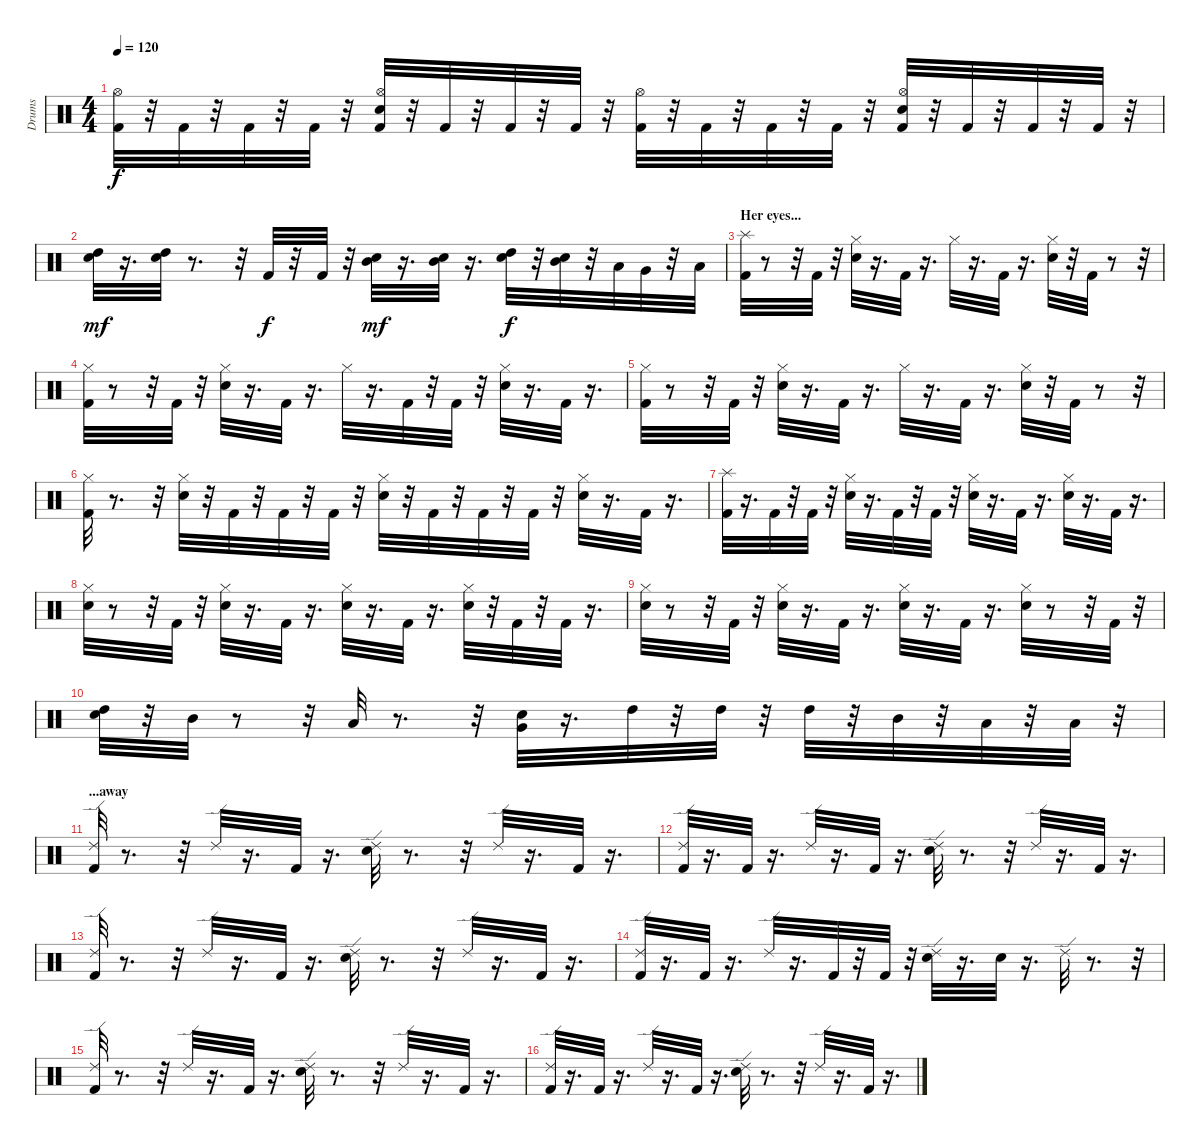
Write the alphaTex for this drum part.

\track ("Drums" "Drums") {instrument percussion}
\staff {score}
\articulation defaults
\ts (4 4)
\tempo 120
\clef neutral
\ks c
("Kick (hit) 2" "Hi-Hat (open)").32{dy f} r.32 "Kick (hit) 2".32 r.32 "Kick (hit) 2".32 r.32 "Kick (hit) 2".32 r.32 ("Kick (hit) 2" "Snare (hit) 2" "Hi-Hat (open)").32 r.32 "Kick (hit) 2".32 r.32 "Kick (hit) 2".32 r.32 "Kick (hit) 2".32 r.32 ("Kick (hit) 2" "Hi-Hat (open)").32 r.32 "Kick (hit) 2".32 r.32 "Kick (hit) 2".32 r.32 "Kick (hit) 2".32 r.32 ("Kick (hit) 2" "Snare (hit) 2" "Hi-Hat (open)").32 r.32 "Kick (hit) 2".32 r.32 "Kick (hit) 2".32 r.32 "Kick (hit) 2".32 r.32 |
("Snare (hit) 2" "High Tom (hit)").32{dy mf} r.16{d} ("Snare (hit) 2" "High Tom (hit)").32 r.8{d} r.32 "Kick (hit) 2".32{dy f} r.32 "Kick (hit) 2".32 r.32 ("Snare (hit) 2" "Mid Tom (hit)").32{dy mf} r.16{d} ("Snare (hit) 2" "Mid Tom (hit)").32 r.16{d} ("Snare (hit) 2" "High Tom (hit)").32{dy f} r.32 ("Snare (hit) 2" "Mid Tom (hit)").32 r.32 "Low Tom (hit)".32 "Very Low Tom (hit)".32 r.32 "Low Floor Tom (hit)".32 |
\section ("" "Her eyes...")
("Kick (hit) 2" "Splash (hit)").32 r.8 r.32 "Kick (hit) 2".32 r.32 ("Snare (hit) 2" "Hi-Hat (closed)").32 r.16{d} "Kick (hit) 2".32 r.16{d} "Hi-Hat (closed)".32 r.16{d} "Kick (hit) 2".32 r.16{d} ("Snare (hit) 2" "Hi-Hat (closed)").32 r.32 "Kick (hit) 2".32 r.8 r.32 |
("Kick (hit) 2" "Hi-Hat (closed)").32 r.8 r.32 "Kick (hit) 2".32 r.32 ("Snare (hit) 2" "Hi-Hat (closed)").32 r.16{d} "Kick (hit) 2".32 r.16{d} "Hi-Hat (closed)".32 r.16{d} "Kick (hit) 2".32 r.32 "Kick (hit) 2".32 r.32 ("Snare (hit) 2" "Hi-Hat (closed)").32 r.16{d} "Kick (hit) 2".32 r.16{d} |
("Kick (hit) 2" "Hi-Hat (closed)").32 r.8 r.32 "Kick (hit) 2".32 r.32 ("Snare (hit) 2" "Hi-Hat (closed)").32 r.16{d} "Kick (hit) 2".32 r.16{d} "Hi-Hat (closed)".32 r.16{d} "Kick (hit) 2".32 r.16{d} ("Snare (hit) 2" "Hi-Hat (closed)").32 r.32 "Kick (hit) 2".32 r.8 r.32 |
("Kick (hit) 2" "Hi-Hat (closed)").32 r.8{d} r.32 ("Snare (hit) 2" "Hi-Hat (closed)").32 r.32 "Kick (hit) 2".32 r.32 "Kick (hit) 2".32 r.32 "Kick (hit) 2".32 r.32 ("Snare (hit) 2" "Hi-Hat (closed)").32 r.32 "Kick (hit) 2".32 r.32 "Kick (hit) 2".32 r.32 "Kick (hit) 2".32 r.32 ("Snare (hit) 2" "Hi-Hat (closed)").32 r.16{d} "Kick (hit) 2".32 r.16{d} |
("Kick (hit) 2" "Splash (hit)").32 r.16{d} "Kick (hit) 2".32 r.32 "Kick (hit) 2".32 r.32 ("Snare (hit) 2" "Hi-Hat (closed)").32 r.16{d} "Kick (hit) 2".32 r.32 "Kick (hit) 2".32 r.32 ("Snare (hit) 2" "Hi-Hat (closed)").32 r.16{d} "Kick (hit) 2".32 r.16{d} ("Snare (hit) 2" "Hi-Hat (closed)").32 r.16{d} "Kick (hit) 2".32 r.16{d} |
("Snare (hit) 2" "Hi-Hat (closed)").32 r.8 r.32 "Kick (hit) 2".32 r.32 ("Snare (hit) 2" "Hi-Hat (closed)").32 r.16{d} "Kick (hit) 2".32 r.16{d} ("Snare (hit) 2" "Hi-Hat (closed)").32 r.16{d} "Kick (hit) 2".32 r.16{d} ("Snare (hit) 2" "Hi-Hat (closed)").32 r.32 "Kick (hit) 2".32 r.32 "Kick (hit) 2".32 r.16{d} |
("Snare (hit) 2" "Hi-Hat (closed)").32 r.8 r.32 "Kick (hit) 2".32 r.32 ("Snare (hit) 2" "Hi-Hat (closed)").32 r.16{d} "Kick (hit) 2".32 r.16{d} ("Snare (hit) 2" "Hi-Hat (closed)").32 r.16{d} "Kick (hit) 2".32 r.16{d} ("Snare (hit) 2" "Hi-Hat (closed)").32 r.8 r.32 "Kick (hit) 2".32 r.32 |
("Snare (hit) 2" "High Tom (hit)").32 r.32 "Mid Tom (hit)".32 r.8 r.32 "Low Tom (hit)".32 r.8{d} r.32 ("Snare (hit) 2" "Very Low Tom (hit)").32 r.16{d} "High Tom (hit)".32 r.32 "High Tom (hit)".32 r.32 "High Tom (hit)".32 r.32 "Mid Tom (hit)".32 r.32 "Low Tom (hit)".32 r.32 "Low Floor Tom (hit)".32 r.32 |
\section ("" "...away")
("Kick (hit) 2" "Ride (edge) 2").32 r.8{d} r.32 "Ride (edge) 2".32 r.16{d} "Kick (hit) 2".32 r.16{d} ("Snare (hit) 2" "Ride (edge) 2").32 r.8{d} r.32 "Ride (edge) 2".32 r.16{d} "Kick (hit) 2".32 r.16{d} |
("Kick (hit) 2" "Ride (edge) 2").32 r.16{d} "Kick (hit) 2".32 r.16{d} "Ride (edge) 2".32 r.16{d} "Kick (hit) 2".32 r.16{d} ("Snare (hit) 2" "Ride (edge) 2").32 r.8{d} r.32 "Ride (edge) 2".32 r.16{d} "Kick (hit) 2".32 r.16{d} |
("Kick (hit) 2" "Ride (edge) 2").32 r.8{d} r.32 "Ride (edge) 2".32 r.16{d} "Kick (hit) 2".32 r.16{d} ("Snare (hit) 2" "Ride (edge) 2").32 r.8{d} r.32 "Ride (edge) 2".32 r.16{d} "Kick (hit) 2".32 r.16{d} |
("Kick (hit) 2" "Ride (edge) 2").32 r.16{d} "Kick (hit) 2".32 r.16{d} "Ride (edge) 2".32 r.16{d} "Kick (hit) 2".32 r.32 "Kick (hit) 2".32 r.32 ("Snare (hit) 2" "Ride (edge) 2").32 r.16{d} "Snare (hit) 2".32 r.16{d} "Ride (edge) 2".32 r.8{d} r.32 |
("Kick (hit) 2" "Ride (edge) 2").32 r.8{d} r.32 "Ride (edge) 2".32 r.16{d} "Kick (hit) 2".32 r.16{d} ("Snare (hit) 2" "Ride (edge) 2").32 r.8{d} r.32 "Ride (edge) 2".32 r.16{d} "Kick (hit) 2".32 r.16{d} |
("Kick (hit) 2" "Ride (edge) 2").32 r.16{d} "Kick (hit) 2".32 r.16{d} "Ride (edge) 2".32 r.16{d} "Kick (hit) 2".32 r.16{d} ("Snare (hit) 2" "Ride (edge) 2").32 r.8{d} r.32 "Ride (edge) 2".32 r.16{d} "Kick (hit) 2".32 r.16{d}
